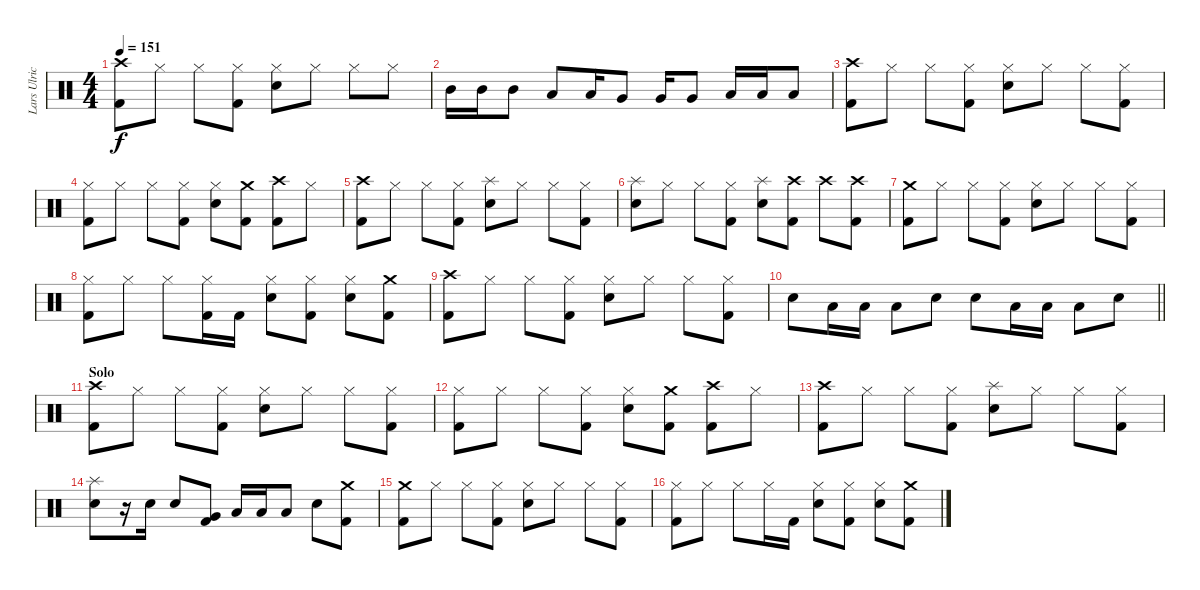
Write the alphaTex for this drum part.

\track ("Lars Ulrich" "Lars Ulric") {instrument percussion}
\staff {score}
\articulation defaults
\ts (4 4)
\tempo 151
\clef neutral
\ks c
("Crash high (hit)" "Kick (hit) 2").8{dy f} "Hi-Hat (closed)".8 "Hi-Hat (closed)".8 ("Hi-Hat (closed)" "Kick (hit) 2").8 ("Hi-Hat (closed)" "Snare (hit) 2").8 "Hi-Hat (closed)".8 "Hi-Hat (closed)".8 "Hi-Hat (closed)".8 |
"Mid Tom (hit)".16 "Mid Tom (hit)".16 "Mid Tom (hit)".8 "Low Tom (hit)".8 "Low Tom (hit)".16 "Very Low Tom (hit)".8 "Very Low Tom (hit)".16 "Very Low Tom (hit)".8 "Low Floor Tom (hit)".16 "Low Floor Tom (hit)".16 "Low Floor Tom (hit)".8 |
("Crash high (hit)" "Kick (hit) 2").8 "Hi-Hat (closed)".8 "Hi-Hat (closed)".8 ("Hi-Hat (closed)" "Kick (hit) 2").8 ("Hi-Hat (closed)" "Snare (hit) 2").8 "Hi-Hat (closed)".8 "Hi-Hat (closed)".8 ("Hi-Hat (closed)" "Kick (hit) 2").8 |
("Hi-Hat (closed)" "Kick (hit) 2").8 "Hi-Hat (closed)".8 "Hi-Hat (closed)".8 ("Hi-Hat (closed)" "Kick (hit) 2").8 ("Hi-Hat (closed)" "Snare (hit) 2").8 ("Crash medium (hit)" "Kick (hit) 2").8 ("Crash high (hit)" "Kick (hit) 2").8 "Hi-Hat (closed)".8 |
("Crash high (hit)" "Kick (hit) 2").8 "Hi-Hat (closed)".8 "Hi-Hat (closed)".8 ("Hi-Hat (closed)" "Kick (hit) 2").8 ("Splash (hit)" "Snare (hit) 2").8 "Hi-Hat (closed)".8 "Hi-Hat (closed)".8 ("Hi-Hat (closed)" "Kick (hit) 2").8 |
("Splash (hit)" "Snare (hit) 2").8 "Hi-Hat (closed)".8 "Hi-Hat (closed)".8 ("Hi-Hat (closed)" "Kick (hit) 2").8 ("Splash (hit)" "Snare (hit) 2").8 ("Crash high (hit)" "Kick (hit) 2").8 "Crash high (hit)".8{volume 0} ("Crash high (hit)" "Kick (hit) 2").8{volume 16} |
("Crash medium (hit)" "Kick (hit) 2").8 "Hi-Hat (closed)".8 "Hi-Hat (closed)".8 ("Hi-Hat (closed)" "Kick (hit) 2").8 ("Hi-Hat (closed)" "Snare (hit) 2").8 "Hi-Hat (closed)".8 "Hi-Hat (closed)".8 ("Hi-Hat (closed)" "Kick (hit) 2").8 |
("Hi-Hat (closed)" "Kick (hit) 2").8 "Hi-Hat (closed)".8 "Hi-Hat (closed)".8 ("Hi-Hat (closed)" "Kick (hit) 2").16 "Kick (hit) 2".16 ("Hi-Hat (closed)" "Snare (hit) 2").8 ("Hi-Hat (closed)" "Kick (hit) 2").8 ("Hi-Hat (closed)" "Snare (hit) 2").8 ("Crash medium (hit)" "Kick (hit) 2").8 |
("Crash high (hit)" "Kick (hit) 2").8 "Hi-Hat (closed)".8 "Hi-Hat (closed)".8 ("Hi-Hat (closed)" "Kick (hit) 2").8 ("Hi-Hat (closed)" "Snare (hit) 2").8 "Hi-Hat (closed)".8 "Hi-Hat (closed)".8 ("Hi-Hat (closed)" "Kick (hit) 2").8 |
\barLineRight lightlight "Snare (hit) 2".8 "Low Tom (hit)".16 "Low Tom (hit)".16 "Low Tom (hit)".8 "Snare (hit) 2".8 "Snare (hit) 2".8 "Low Tom (hit)".16 "Low Tom (hit)".16 "Low Tom (hit)".8 "Snare (hit) 2".8
|
\section ("" "Solo")
("Crash high (hit)" "Kick (hit) 2").8 "Hi-Hat (closed)".8 "Hi-Hat (closed)".8 ("Hi-Hat (closed)" "Kick (hit) 2").8 ("Hi-Hat (closed)" "Snare (hit) 2").8 "Hi-Hat (closed)".8 "Hi-Hat (closed)".8 ("Hi-Hat (closed)" "Kick (hit) 2").8 |
("Hi-Hat (closed)" "Kick (hit) 2").8 "Hi-Hat (closed)".8 "Hi-Hat (closed)".8 ("Hi-Hat (closed)" "Kick (hit) 2").8 ("Hi-Hat (closed)" "Snare (hit) 2").8 ("Crash medium (hit)" "Kick (hit) 2").8 ("Crash high (hit)" "Kick (hit) 2").8 "Hi-Hat (closed)".8 |
("Crash high (hit)" "Kick (hit) 2").8 "Hi-Hat (closed)".8 "Hi-Hat (closed)".8 ("Hi-Hat (closed)" "Kick (hit) 2").8 ("Splash (hit)" "Snare (hit) 2").8 "Hi-Hat (closed)".8 "Hi-Hat (closed)".8 ("Hi-Hat (closed)" "Kick (hit) 2").8 |
("Splash (hit)" "Snare (hit) 2").8 r.16 "Snare (hit) 2".16 "Snare (hit) 2".8 ("Very Low Tom (hit)" "Kick (hit) 2").8 "Low Tom (hit)".16 "Low Tom (hit)".16 "Low Tom (hit)".8 "Snare (hit) 2".8 ("Crash medium (hit)" "Kick (hit) 2").8 |
("Crash medium (hit)" "Kick (hit) 2").8 "Hi-Hat (closed)".8 "Hi-Hat (closed)".8 ("Hi-Hat (closed)" "Kick (hit) 2").8 ("Hi-Hat (closed)" "Snare (hit) 2").8 "Hi-Hat (closed)".8 "Hi-Hat (closed)".8 ("Hi-Hat (closed)" "Kick (hit) 2").8 |
("Hi-Hat (closed)" "Kick (hit) 2").8 "Hi-Hat (closed)".8 "Hi-Hat (closed)".8 "Hi-Hat (closed)".16 "Kick (hit) 2".16 ("Hi-Hat (closed)" "Snare (hit) 2").8 ("Hi-Hat (closed)" "Kick (hit) 2").8 ("Hi-Hat (closed)" "Snare (hit) 2").8 ("Crash medium (hit)" "Kick (hit) 2").8
